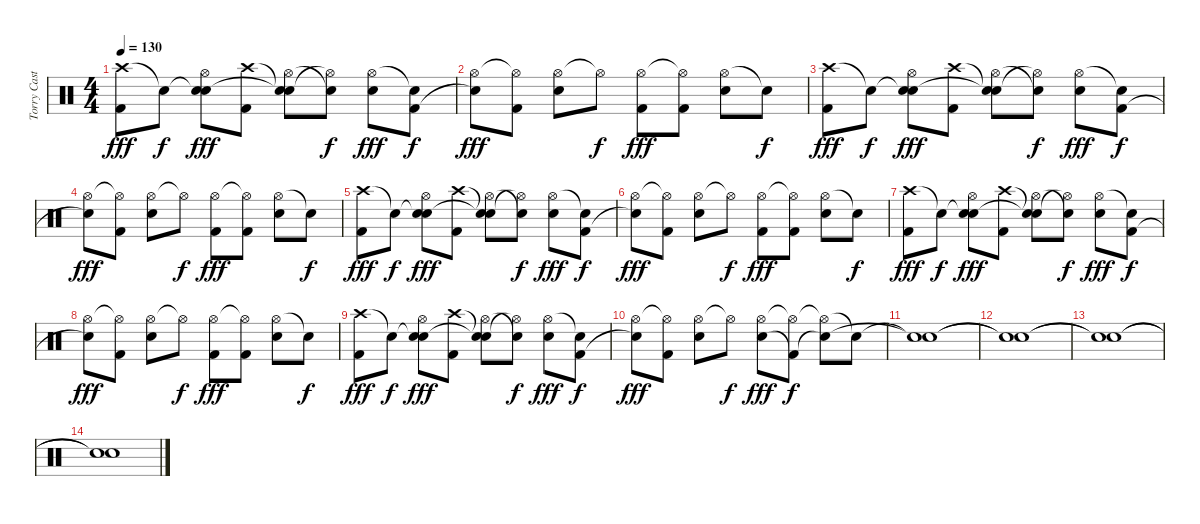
\track ("Torry Castellano" "Torry Cast") {instrument percussion}
\staff {score}
\articulation defaults
\ts (4 4)
\tempo 130
\clef neutral
\ks c
("Crash high (hit)" "Kick (hit) 2").8{dy fff} "Snare (hit)"{t}.8{dy f} ("Snare (hit)"{t} "Hi-Hat (open)" "Electric Snare (hit)").8{dy fff} ("Crash high (hit)" "Kick (hit) 2").8 ("Snare (hit)"{t} "Hi-Hat (open)" "Snare (hit)"{t}).8 ("Hi-Hat (open)"{t} "Electric Snare (hit)"{t}).8{dy f} ("Hi-Hat (open)" "Electric Snare (hit)").8{dy fff} ("Snare (hit)"{t} "Kick (hit) 2").8{dy f} |
("Hi-Hat (open)" "Snare (hit)"{t}).8{dy fff} ("Hi-Hat (open)"{t} "Kick (hit) 2").8 ("Hi-Hat (open)" "Electric Snare (hit)").8 "Hi-Hat (open)"{t}.8{dy f} ("Hi-Hat (open)" "Kick (hit) 2").8{dy fff} ("Hi-Hat (open)"{t} "Kick (hit) 2").8 ("Hi-Hat (open)" "Electric Snare (hit)").8 "Snare (hit)"{t}.8{dy f} |
("Crash high (hit)" "Kick (hit) 2").8{dy fff} "Snare (hit)"{t}.8{dy f} ("Snare (hit)"{t} "Hi-Hat (open)" "Electric Snare (hit)").8{dy fff} ("Crash high (hit)" "Kick (hit) 2").8 ("Snare (hit)"{t} "Hi-Hat (open)" "Snare (hit)"{t}).8 ("Hi-Hat (open)"{t} "Electric Snare (hit)"{t}).8{dy f} ("Hi-Hat (open)" "Electric Snare (hit)").8{dy fff} ("Snare (hit)"{t} "Kick (hit) 2").8{dy f} |
("Hi-Hat (open)" "Snare (hit)"{t}).8{dy fff} ("Hi-Hat (open)"{t} "Kick (hit) 2").8 ("Hi-Hat (open)" "Electric Snare (hit)").8 "Hi-Hat (open)"{t}.8{dy f} ("Hi-Hat (open)" "Kick (hit) 2").8{dy fff} ("Hi-Hat (open)"{t} "Kick (hit) 2").8 ("Hi-Hat (open)" "Electric Snare (hit)").8 "Snare (hit)"{t}.8{dy f} |
("Crash high (hit)" "Kick (hit) 2").8{dy fff} "Snare (hit)"{t}.8{dy f} ("Snare (hit)"{t} "Hi-Hat (open)" "Electric Snare (hit)").8{dy fff} ("Crash high (hit)" "Kick (hit) 2").8 ("Snare (hit)"{t} "Hi-Hat (open)" "Snare (hit)"{t}).8 ("Hi-Hat (open)"{t} "Electric Snare (hit)"{t}).8{dy f} ("Hi-Hat (open)" "Electric Snare (hit)").8{dy fff} ("Snare (hit)"{t} "Kick (hit) 2").8{dy f} |
("Hi-Hat (open)" "Snare (hit)"{t}).8{dy fff} ("Hi-Hat (open)"{t} "Kick (hit) 2").8 ("Hi-Hat (open)" "Electric Snare (hit)").8 "Hi-Hat (open)"{t}.8{dy f} ("Hi-Hat (open)" "Kick (hit) 2").8{dy fff} ("Hi-Hat (open)"{t} "Kick (hit) 2").8 ("Hi-Hat (open)" "Electric Snare (hit)").8 "Snare (hit)"{t}.8{dy f} |
("Crash high (hit)" "Kick (hit) 2").8{dy fff} "Snare (hit)"{t}.8{dy f} ("Snare (hit)"{t} "Hi-Hat (open)" "Electric Snare (hit)").8{dy fff} ("Crash high (hit)" "Kick (hit) 2").8 ("Snare (hit)"{t} "Hi-Hat (open)" "Snare (hit)"{t}).8 ("Hi-Hat (open)"{t} "Electric Snare (hit)"{t}).8{dy f} ("Hi-Hat (open)" "Electric Snare (hit)").8{dy fff} ("Snare (hit)"{t} "Kick (hit) 2").8{dy f} |
("Hi-Hat (open)" "Snare (hit)"{t}).8{dy fff} ("Hi-Hat (open)"{t} "Kick (hit) 2").8 ("Hi-Hat (open)" "Electric Snare (hit)").8 "Hi-Hat (open)"{t}.8{dy f} ("Hi-Hat (open)" "Kick (hit) 2").8{dy fff} ("Hi-Hat (open)"{t} "Kick (hit) 2").8 ("Hi-Hat (open)" "Electric Snare (hit)").8 "Snare (hit)"{t}.8{dy f} |
("Crash high (hit)" "Kick (hit) 2").8{dy fff} "Snare (hit)"{t}.8{dy f} ("Snare (hit)"{t} "Hi-Hat (open)" "Electric Snare (hit)").8{dy fff} ("Crash high (hit)" "Kick (hit) 2").8 ("Snare (hit)"{t} "Hi-Hat (open)" "Snare (hit)"{t}).8 ("Hi-Hat (open)"{t} "Electric Snare (hit)"{t}).8{dy f} ("Hi-Hat (open)" "Electric Snare (hit)").8{dy fff} ("Snare (hit)"{t} "Kick (hit) 2").8{dy f} |
("Hi-Hat (open)" "Snare (hit)"{t}).8{dy fff} ("Hi-Hat (open)"{t} "Kick (hit) 2").8 ("Hi-Hat (open)" "Electric Snare (hit)").8 "Hi-Hat (open)"{t}.8{dy f} ("Hi-Hat (open)" "Electric Snare (hit)").8{dy fff} ("Hi-Hat (open)"{t} "Kick (hit) 2"{t}).8{dy f} ("Hi-Hat (open)"{t} "Electric Snare (hit)"{t}).8 "Snare (hit)"{t}.8 |
("Snare (hit)"{t} "Snare (hit)"{t}).1 |
("Snare (hit)"{t} "Snare (hit)"{t}).1 |
("Snare (hit)"{t} "Snare (hit)"{t}).1 |
("Snare (hit)"{t} "Snare (hit)"{t}).1
